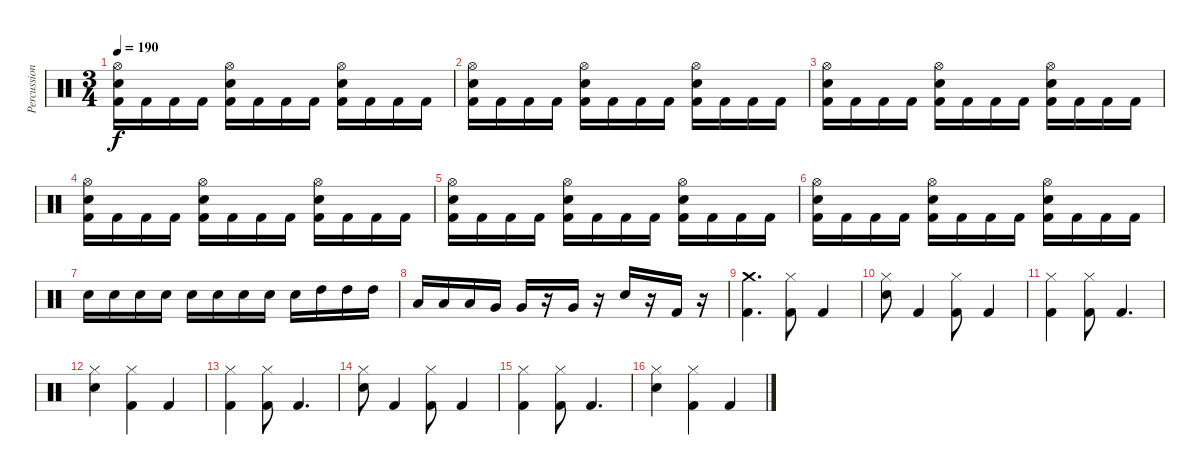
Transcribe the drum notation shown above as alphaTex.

\track ("Percussion" "Percussion") {instrument percussion}
\staff {score}
\articulation defaults
\ts (3 4)
\tempo 190
\clef neutral
\ks c
("Kick (hit) 2" "Snare (hit) 2" "Hi-Hat (open)").16{dy f} "Kick (hit) 2".16 "Kick (hit) 2".16 "Kick (hit) 2".16 ("Kick (hit) 2" "Snare (hit) 2" "Hi-Hat (open)").16 "Kick (hit) 2".16 "Kick (hit) 2".16 "Kick (hit) 2".16 ("Kick (hit) 2" "Snare (hit) 2" "Hi-Hat (open)").16 "Kick (hit) 2".16 "Kick (hit) 2".16 "Kick (hit) 2".16 |
("Kick (hit) 2" "Snare (hit) 2" "Hi-Hat (open)").16 "Kick (hit) 2".16 "Kick (hit) 2".16 "Kick (hit) 2".16 ("Kick (hit) 2" "Snare (hit) 2" "Hi-Hat (open)").16 "Kick (hit) 2".16 "Kick (hit) 2".16 "Kick (hit) 2".16 ("Kick (hit) 2" "Snare (hit) 2" "Hi-Hat (open)").16 "Kick (hit) 2".16 "Kick (hit) 2".16 "Kick (hit) 2".16 |
("Kick (hit) 2" "Snare (hit) 2" "Hi-Hat (open)").16 "Kick (hit) 2".16 "Kick (hit) 2".16 "Kick (hit) 2".16 ("Kick (hit) 2" "Snare (hit) 2" "Hi-Hat (open)").16 "Kick (hit) 2".16 "Kick (hit) 2".16 "Kick (hit) 2".16 ("Kick (hit) 2" "Snare (hit) 2" "Hi-Hat (open)").16 "Kick (hit) 2".16 "Kick (hit) 2".16 "Kick (hit) 2".16 |
("Kick (hit) 2" "Snare (hit) 2" "Hi-Hat (open)").16 "Kick (hit) 2".16 "Kick (hit) 2".16 "Kick (hit) 2".16 ("Kick (hit) 2" "Snare (hit) 2" "Hi-Hat (open)").16 "Kick (hit) 2".16 "Kick (hit) 2".16 "Kick (hit) 2".16 ("Kick (hit) 2" "Snare (hit) 2" "Hi-Hat (open)").16 "Kick (hit) 2".16 "Kick (hit) 2".16 "Kick (hit) 2".16 |
("Kick (hit) 2" "Snare (hit) 2" "Hi-Hat (open)").16 "Kick (hit) 2".16 "Kick (hit) 2".16 "Kick (hit) 2".16 ("Kick (hit) 2" "Snare (hit) 2" "Hi-Hat (open)").16 "Kick (hit) 2".16 "Kick (hit) 2".16 "Kick (hit) 2".16 ("Kick (hit) 2" "Snare (hit) 2" "Hi-Hat (open)").16 "Kick (hit) 2".16 "Kick (hit) 2".16 "Kick (hit) 2".16 |
("Kick (hit) 2" "Snare (hit) 2" "Hi-Hat (open)").16 "Kick (hit) 2".16 "Kick (hit) 2".16 "Kick (hit) 2".16 ("Kick (hit) 2" "Snare (hit) 2" "Hi-Hat (open)").16 "Kick (hit) 2".16 "Kick (hit) 2".16 "Kick (hit) 2".16 ("Kick (hit) 2" "Snare (hit) 2" "Hi-Hat (open)").16 "Kick (hit) 2".16 "Kick (hit) 2".16 "Kick (hit) 2".16 |
"Snare (hit) 2".16 "Snare (hit) 2".16 "Snare (hit) 2".16 "Snare (hit) 2".16 "Snare (hit) 2".16 "Snare (hit) 2".16 "Snare (hit) 2".16 "Snare (hit) 2".16 "Snare (hit) 2".16 "High Tom (hit)".16 "High Tom (hit)".16 "High Tom (hit)".16 |
"Low Tom (hit)".16 "Low Tom (hit)".16 "Low Tom (hit)".16 "Very Low Tom (hit)".16 "Very Low Tom (hit)".16 r.16 "Very Low Tom (hit)".16 r.16 "Snare (hit) 2".16 r.16 "Kick (hit) 2".16 r.16 |
("Kick (hit) 2" "Crash medium (hit)").4{d} ("Kick (hit) 2" "Hi-Hat (closed)").8 "Kick (hit) 2".4 |
("Snare (hit) 2" "Hi-Hat (closed)").8 "Kick (hit) 2".4 ("Kick (hit) 2" "Hi-Hat (closed)").8 "Kick (hit) 2".4 |
("Kick (hit) 2" "Hi-Hat (closed)").4 ("Kick (hit) 2" "Hi-Hat (closed)").8 "Kick (hit) 2".4{d} |
("Snare (hit) 2" "Hi-Hat (closed)").4 ("Kick (hit) 2" "Hi-Hat (closed)").4 "Kick (hit) 2".4 |
("Kick (hit) 2" "Hi-Hat (closed)").4 ("Kick (hit) 2" "Hi-Hat (closed)").8 "Kick (hit) 2".4{d} |
("Snare (hit) 2" "Hi-Hat (closed)").8 "Kick (hit) 2".4 ("Kick (hit) 2" "Hi-Hat (closed)").8 "Kick (hit) 2".4 |
("Kick (hit) 2" "Hi-Hat (closed)").4 ("Kick (hit) 2" "Hi-Hat (closed)").8 "Kick (hit) 2".4{d} |
("Snare (hit) 2" "Hi-Hat (closed)").4 ("Kick (hit) 2" "Hi-Hat (closed)").4 "Kick (hit) 2".4
